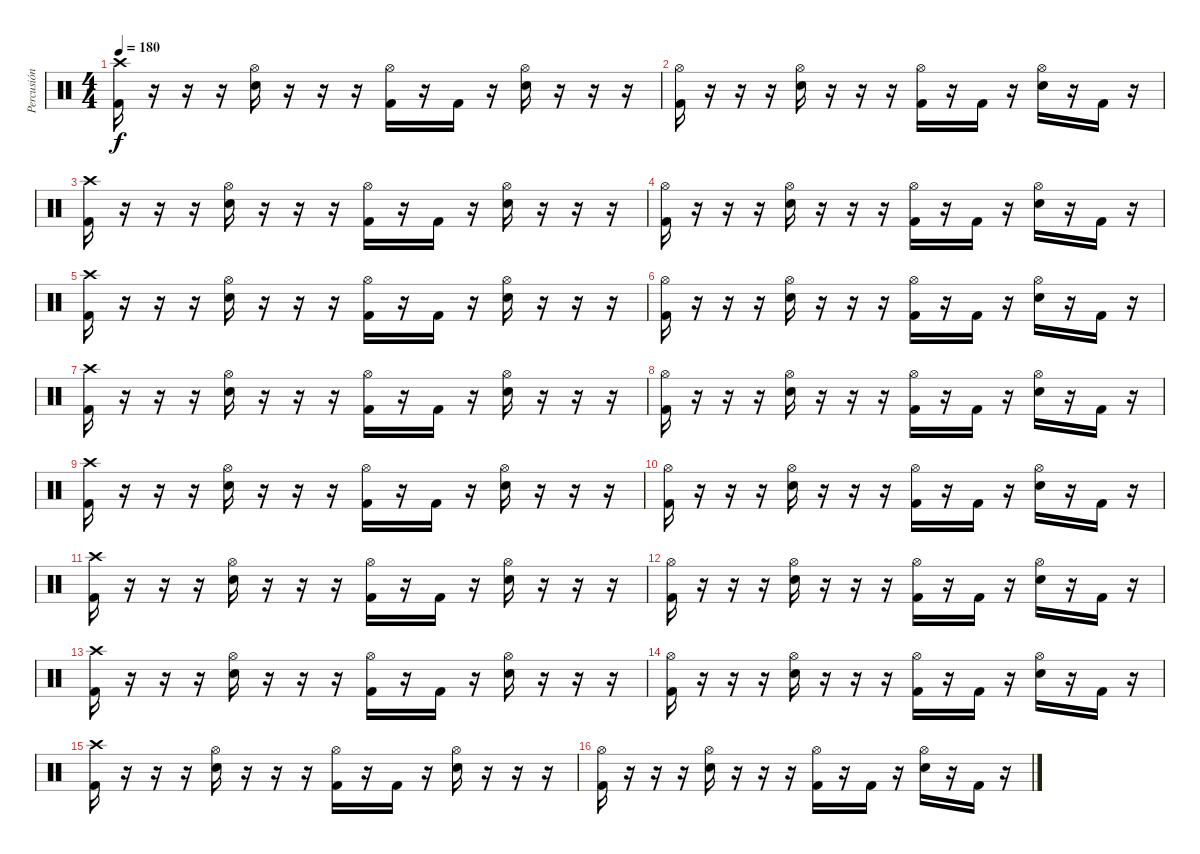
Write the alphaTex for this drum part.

\track ("Percusión" "Percusión") {instrument percussion}
\staff {score}
\articulation defaults
\ts (4 4)
\tempo 180
\clef neutral
\ks c
("Crash high (hit)" "Kick (hit) 2").16{dy f} r.16 r.16 r.16 ("Hi-Hat (open)" "Electric Snare (hit)").16 r.16 r.16 r.16 ("Hi-Hat (open)" "Kick (hit) 2").16 r.16 "Kick (hit) 2".16 r.16 ("Hi-Hat (open)" "Electric Snare (hit)").16 r.16 r.16 r.16 |
("Hi-Hat (open)" "Kick (hit) 2").16 r.16 r.16 r.16 ("Hi-Hat (open)" "Electric Snare (hit)").16 r.16 r.16 r.16 ("Hi-Hat (open)" "Kick (hit) 2").16 r.16 "Kick (hit) 2".16 r.16 ("Hi-Hat (open)" "Electric Snare (hit)").16 r.16 "Kick (hit) 2".16 r.16 |
("Crash high (hit)" "Kick (hit) 2").16 r.16 r.16 r.16 ("Hi-Hat (open)" "Electric Snare (hit)").16 r.16 r.16 r.16 ("Hi-Hat (open)" "Kick (hit) 2").16 r.16 "Kick (hit) 2".16 r.16 ("Hi-Hat (open)" "Electric Snare (hit)").16 r.16 r.16 r.16 |
("Hi-Hat (open)" "Kick (hit) 2").16 r.16 r.16 r.16 ("Hi-Hat (open)" "Electric Snare (hit)").16 r.16 r.16 r.16 ("Hi-Hat (open)" "Kick (hit) 2").16 r.16 "Kick (hit) 2".16 r.16 ("Hi-Hat (open)" "Electric Snare (hit)").16 r.16 "Kick (hit) 2".16 r.16 |
("Crash high (hit)" "Kick (hit) 2").16 r.16 r.16 r.16 ("Hi-Hat (open)" "Electric Snare (hit)").16 r.16 r.16 r.16 ("Hi-Hat (open)" "Kick (hit) 2").16 r.16 "Kick (hit) 2".16 r.16 ("Hi-Hat (open)" "Electric Snare (hit)").16 r.16 r.16 r.16 |
("Hi-Hat (open)" "Kick (hit) 2").16 r.16 r.16 r.16 ("Hi-Hat (open)" "Electric Snare (hit)").16 r.16 r.16 r.16 ("Hi-Hat (open)" "Kick (hit) 2").16 r.16 "Kick (hit) 2".16 r.16 ("Hi-Hat (open)" "Electric Snare (hit)").16 r.16 "Kick (hit) 2".16 r.16 |
("Crash high (hit)" "Kick (hit) 2").16 r.16 r.16 r.16 ("Hi-Hat (open)" "Electric Snare (hit)").16 r.16 r.16 r.16 ("Hi-Hat (open)" "Kick (hit) 2").16 r.16 "Kick (hit) 2".16 r.16 ("Hi-Hat (open)" "Electric Snare (hit)").16 r.16 r.16 r.16 |
("Hi-Hat (open)" "Kick (hit) 2").16 r.16 r.16 r.16 ("Hi-Hat (open)" "Electric Snare (hit)").16 r.16 r.16 r.16 ("Hi-Hat (open)" "Kick (hit) 2").16 r.16 "Kick (hit) 2".16 r.16 ("Hi-Hat (open)" "Electric Snare (hit)").16 r.16 "Kick (hit) 2".16 r.16 |
("Crash high (hit)" "Kick (hit) 2").16 r.16 r.16 r.16 ("Hi-Hat (open)" "Electric Snare (hit)").16 r.16 r.16 r.16 ("Hi-Hat (open)" "Kick (hit) 2").16 r.16 "Kick (hit) 2".16 r.16 ("Hi-Hat (open)" "Electric Snare (hit)").16 r.16 r.16 r.16 |
("Hi-Hat (open)" "Kick (hit) 2").16 r.16 r.16 r.16 ("Hi-Hat (open)" "Electric Snare (hit)").16 r.16 r.16 r.16 ("Hi-Hat (open)" "Kick (hit) 2").16 r.16 "Kick (hit) 2".16 r.16 ("Hi-Hat (open)" "Electric Snare (hit)").16 r.16 "Kick (hit) 2".16 r.16 |
("Crash high (hit)" "Kick (hit) 2").16 r.16 r.16 r.16 ("Hi-Hat (open)" "Electric Snare (hit)").16 r.16 r.16 r.16 ("Hi-Hat (open)" "Kick (hit) 2").16 r.16 "Kick (hit) 2".16 r.16 ("Hi-Hat (open)" "Electric Snare (hit)").16 r.16 r.16 r.16 |
("Hi-Hat (open)" "Kick (hit) 2").16 r.16 r.16 r.16 ("Hi-Hat (open)" "Electric Snare (hit)").16 r.16 r.16 r.16 ("Hi-Hat (open)" "Kick (hit) 2").16 r.16 "Kick (hit) 2".16 r.16 ("Hi-Hat (open)" "Electric Snare (hit)").16 r.16 "Kick (hit) 2".16 r.16 |
("Crash high (hit)" "Kick (hit) 2").16 r.16 r.16 r.16 ("Hi-Hat (open)" "Electric Snare (hit)").16 r.16 r.16 r.16 ("Hi-Hat (open)" "Kick (hit) 2").16 r.16 "Kick (hit) 2".16 r.16 ("Hi-Hat (open)" "Electric Snare (hit)").16 r.16 r.16 r.16 |
("Hi-Hat (open)" "Kick (hit) 2").16 r.16 r.16 r.16 ("Hi-Hat (open)" "Electric Snare (hit)").16 r.16 r.16 r.16 ("Hi-Hat (open)" "Kick (hit) 2").16 r.16 "Kick (hit) 2".16 r.16 ("Hi-Hat (open)" "Electric Snare (hit)").16 r.16 "Kick (hit) 2".16 r.16 |
("Crash high (hit)" "Kick (hit) 2").16 r.16 r.16 r.16 ("Hi-Hat (open)" "Electric Snare (hit)").16 r.16 r.16 r.16 ("Hi-Hat (open)" "Kick (hit) 2").16 r.16 "Kick (hit) 2".16 r.16 ("Hi-Hat (open)" "Electric Snare (hit)").16 r.16 r.16 r.16 |
("Hi-Hat (open)" "Kick (hit) 2").16 r.16 r.16 r.16 ("Hi-Hat (open)" "Electric Snare (hit)").16 r.16 r.16 r.16 ("Hi-Hat (open)" "Kick (hit) 2").16 r.16 "Kick (hit) 2".16 r.16 ("Hi-Hat (open)" "Electric Snare (hit)").16 r.16 "Kick (hit) 2".16 r.16
